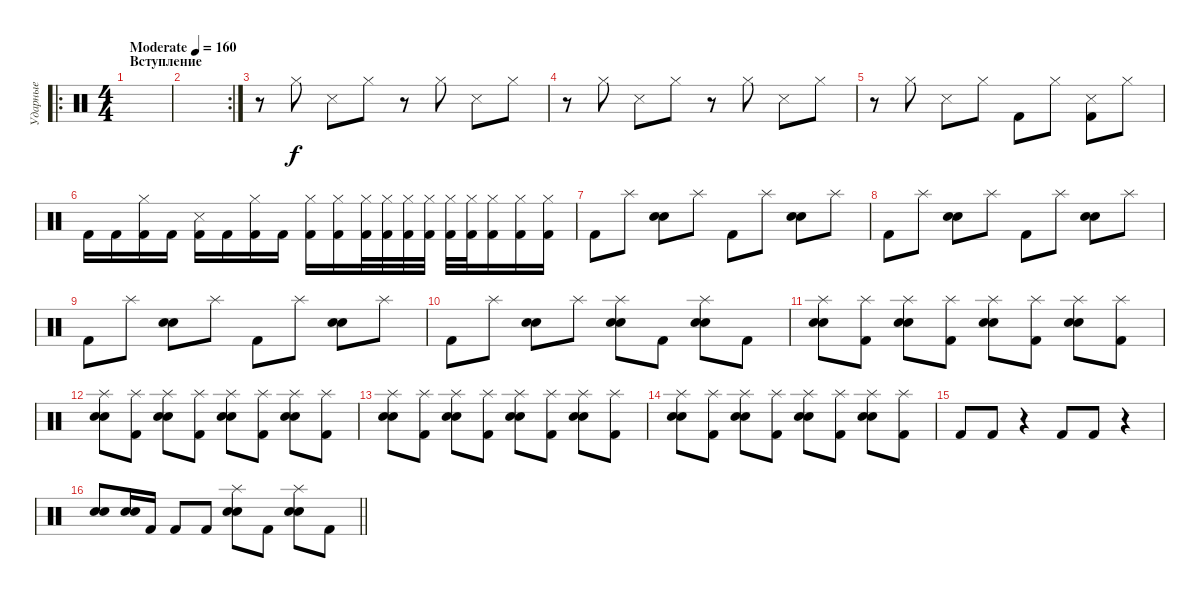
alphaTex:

\track ("Ударные" "Ударные") {instrument percussion}
\staff {score}
\articulation defaults
\ro
\ts (4 4)
\section ("" "Вступление")
\tempo (160 "Moderate")
\clef neutral
\ks c
|
\rc 2
|
r.8 "Hi-Hat (closed)".8 "Metronome (hit)".8 "Hi-Hat (closed)".8 r.8 "Hi-Hat (closed)".8 "Metronome (hit)".8 "Hi-Hat (closed)".8 |
r.8 "Hi-Hat (closed)".8 "Metronome (hit)".8 "Hi-Hat (closed)".8 r.8 "Hi-Hat (closed)".8 "Metronome (hit)".8 "Hi-Hat (closed)".8 |
r.8 "Hi-Hat (closed)".8 "Metronome (hit)".8 "Hi-Hat (closed)".8 "Kick (hit) 2".8 "Hi-Hat (closed)".8 ("Metronome (hit)" "Kick (hit) 2").8 "Hi-Hat (closed)".8 |
"Kick (hit) 2".16 "Kick (hit) 2".16 ("Hi-Hat (closed)" "Kick (hit) 2").16 "Kick (hit) 2".16 ("Metronome (hit)" "Kick (hit) 2").16 "Kick (hit) 2".16 ("Hi-Hat (closed)" "Kick (hit) 2").16 "Kick (hit) 2".16 ("Hi-Hat (closed)" "Kick (hit) 2").16 ("Hi-Hat (closed)" "Kick (hit) 2").16 ("Hi-Hat (closed)" "Kick (hit) 2").32 ("Hi-Hat (closed)" "Kick (hit) 2").32 ("Hi-Hat (closed)" "Kick (hit) 2").32 ("Hi-Hat (closed)" "Kick (hit) 2").32 ("Hi-Hat (closed)" "Kick (hit) 2").32 ("Hi-Hat (closed)" "Kick (hit) 2").32 ("Hi-Hat (closed)" "Kick (hit) 2").16 ("Hi-Hat (closed)" "Kick (hit) 2").16 ("Hi-Hat (closed)" "Kick (hit) 2").16 |
"Kick (hit) 2".8 "Splash (hit)".8 ("Electric Snare (hit)" "Snare (hit) 2").8 "Splash (hit)".8 "Kick (hit) 2".8 "Splash (hit)".8 ("Electric Snare (hit)" "Snare (hit) 2").8 "Splash (hit)".8 |
"Kick (hit) 2".8 "Splash (hit)".8 ("Electric Snare (hit)" "Snare (hit) 2").8 "Splash (hit)".8 "Kick (hit) 2".8 "Splash (hit)".8 ("Electric Snare (hit)" "Snare (hit) 2").8 "Splash (hit)".8 |
"Kick (hit) 2".8 "Splash (hit)".8 ("Electric Snare (hit)" "Snare (hit) 2").8 "Splash (hit)".8 "Kick (hit) 2".8 "Splash (hit)".8 ("Electric Snare (hit)" "Snare (hit) 2").8 "Splash (hit)".8 |
"Kick (hit) 2".8 "Splash (hit)".8 ("Electric Snare (hit)" "Snare (hit) 2").8 "Splash (hit)".8 ("Splash (hit)" "Electric Snare (hit)" "Snare (hit) 2").8 "Kick (hit) 2".8 ("Splash (hit)" "Electric Snare (hit)" "Snare (hit) 2").8 "Kick (hit) 2".8 |
("Splash (hit)" "Electric Snare (hit)" "Snare (hit) 2").8 ("Splash (hit)" "Kick (hit) 2").8 ("Splash (hit)" "Electric Snare (hit)" "Snare (hit) 2").8 ("Splash (hit)" "Kick (hit) 2").8 ("Splash (hit)" "Electric Snare (hit)" "Snare (hit) 2").8 ("Splash (hit)" "Kick (hit) 2").8 ("Splash (hit)" "Electric Snare (hit)" "Snare (hit) 2").8 ("Splash (hit)" "Kick (hit) 2").8 |
("Splash (hit)" "Electric Snare (hit)" "Snare (hit) 2").8 ("Splash (hit)" "Kick (hit) 2").8 ("Splash (hit)" "Electric Snare (hit)" "Snare (hit) 2").8 ("Splash (hit)" "Kick (hit) 2").8 ("Splash (hit)" "Electric Snare (hit)" "Snare (hit) 2").8 ("Splash (hit)" "Kick (hit) 2").8 ("Splash (hit)" "Electric Snare (hit)" "Snare (hit) 2").8 ("Splash (hit)" "Kick (hit) 2").8 |
("Splash (hit)" "Electric Snare (hit)" "Snare (hit) 2").8 ("Splash (hit)" "Kick (hit) 2").8 ("Splash (hit)" "Electric Snare (hit)" "Snare (hit) 2").8 ("Splash (hit)" "Kick (hit) 2").8 ("Splash (hit)" "Electric Snare (hit)" "Snare (hit) 2").8 ("Splash (hit)" "Kick (hit) 2").8 ("Splash (hit)" "Electric Snare (hit)" "Snare (hit) 2").8 ("Splash (hit)" "Kick (hit) 2").8 |
("Splash (hit)" "Electric Snare (hit)" "Snare (hit) 2").8 ("Splash (hit)" "Kick (hit) 2").8 ("Splash (hit)" "Electric Snare (hit)" "Snare (hit) 2").8 ("Splash (hit)" "Kick (hit) 2").8 ("Splash (hit)" "Electric Snare (hit)" "Snare (hit) 2").8 ("Splash (hit)" "Kick (hit) 2").8 ("Splash (hit)" "Electric Snare (hit)" "Snare (hit) 2").8 ("Splash (hit)" "Kick (hit) 2").8 |
"Kick (hit) 2".8 "Kick (hit) 2".8 r.4 "Kick (hit) 2".8 "Kick (hit) 2".8 r.4 |
\barLineRight lightlight
("Electric Snare (hit)" "Snare (hit) 2").8 ("Electric Snare (hit)" "Snare (hit) 2").16 "Kick (hit) 2".16 "Kick (hit) 2".8 "Kick (hit) 2".8 ("Splash (hit)" "Electric Snare (hit)" "Snare (hit) 2").8 "Kick (hit) 2".8 ("Splash (hit)" "Electric Snare (hit)" "Snare (hit) 2").8 "Kick (hit) 2".8
